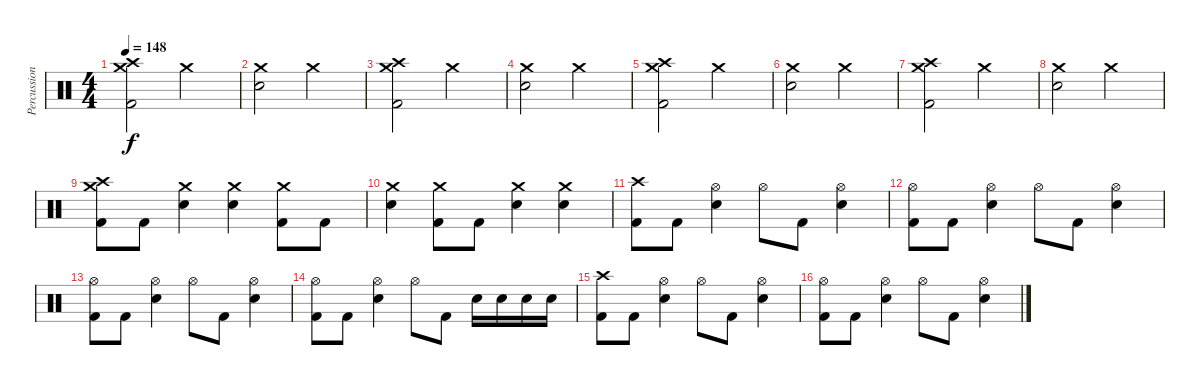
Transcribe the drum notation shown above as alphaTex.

\track ("Percussion" "Percussion") {instrument percussion}
\staff {score}
\articulation defaults
\ts (4 4)
\tempo 148
\clef neutral
\ks c
("Crash medium (hit)" "Crash high (hit)" "Kick (hit) 2").2{dy f} "Crash medium (hit)".2 |
("Crash medium (hit)" "Electric Snare (hit)").2 "Crash medium (hit)".2 |
("Crash medium (hit)" "Crash high (hit)" "Kick (hit) 2").2 "Crash medium (hit)".2 |
("Crash medium (hit)" "Electric Snare (hit)").2 "Crash medium (hit)".2 |
("Crash medium (hit)" "Crash high (hit)" "Kick (hit) 2").2 "Crash medium (hit)".2 |
("Crash medium (hit)" "Electric Snare (hit)").2 "Crash medium (hit)".2 |
("Crash medium (hit)" "Crash high (hit)" "Kick (hit) 2").2 "Crash medium (hit)".2 |
("Crash medium (hit)" "Electric Snare (hit)").2 "Crash medium (hit)".2 |
("Crash medium (hit)" "Crash high (hit)" "Kick (hit) 2").8 "Kick (hit) 2".8 ("Crash medium (hit)" "Electric Snare (hit)").4 ("Crash medium (hit)" "Electric Snare (hit)").4 ("Crash medium (hit)" "Kick (hit) 2").8 "Kick (hit) 2".8 |
("Crash medium (hit)" "Electric Snare (hit)").4 ("Crash medium (hit)" "Kick (hit) 2").8 "Kick (hit) 2".8 ("Crash medium (hit)" "Electric Snare (hit)").4 ("Crash medium (hit)" "Electric Snare (hit)").4 |
("Crash high (hit)" "Kick (hit) 2").8 "Kick (hit) 2".8 ("Hi-Hat (open)" "Electric Snare (hit)").4 "Hi-Hat (open)".8 "Kick (hit) 2".8 ("Hi-Hat (open)" "Electric Snare (hit)").4 |
("Hi-Hat (open)" "Kick (hit) 2").8 "Kick (hit) 2".8 ("Hi-Hat (open)" "Electric Snare (hit)").4 "Hi-Hat (open)".8 "Kick (hit) 2".8 ("Hi-Hat (open)" "Electric Snare (hit)").4 |
("Hi-Hat (open)" "Kick (hit) 2").8 "Kick (hit) 2".8 ("Hi-Hat (open)" "Electric Snare (hit)").4 "Hi-Hat (open)".8 "Kick (hit) 2".8 ("Hi-Hat (open)" "Electric Snare (hit)").4 |
("Hi-Hat (open)" "Kick (hit) 2").8 "Kick (hit) 2".8 ("Hi-Hat (open)" "Electric Snare (hit)").4 "Hi-Hat (open)".8 "Kick (hit) 2".8 "Electric Snare (hit)".16 "Electric Snare (hit)".16 "Electric Snare (hit)".16 "Electric Snare (hit)".16 |
("Crash high (hit)" "Kick (hit) 2").8 "Kick (hit) 2".8 ("Hi-Hat (open)" "Electric Snare (hit)").4 "Hi-Hat (open)".8 "Kick (hit) 2".8 ("Hi-Hat (open)" "Electric Snare (hit)").4 |
("Hi-Hat (open)" "Kick (hit) 2").8 "Kick (hit) 2".8 ("Hi-Hat (open)" "Electric Snare (hit)").4 "Hi-Hat (open)".8 "Kick (hit) 2".8 ("Hi-Hat (open)" "Electric Snare (hit)").4
